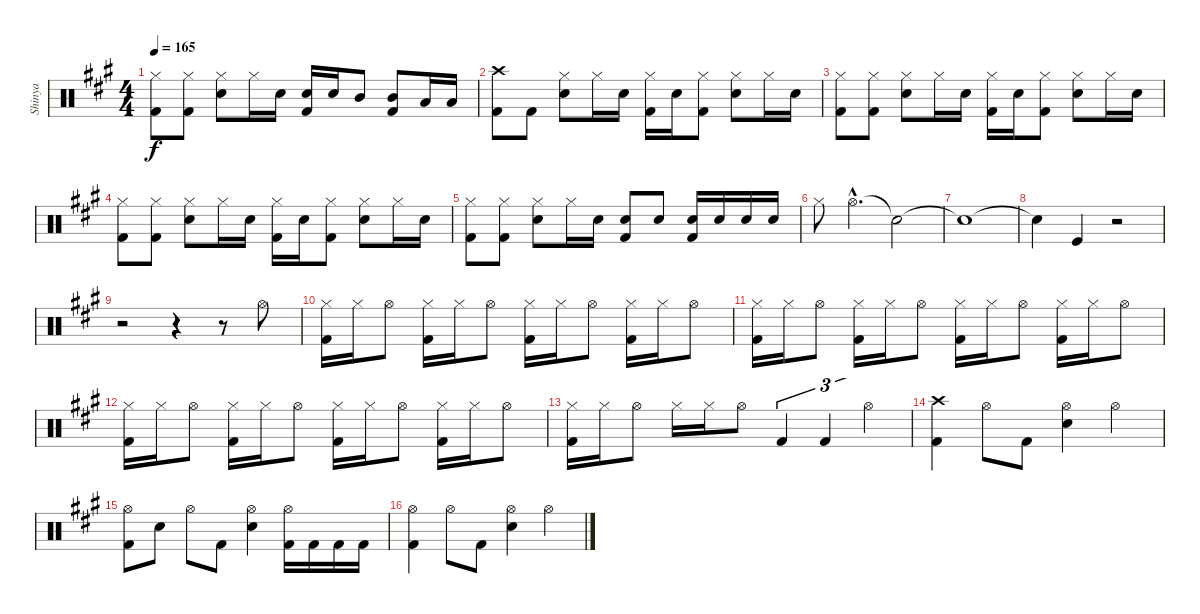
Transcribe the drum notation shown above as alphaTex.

\track ("Shinya" "Shinya") {instrument percussion}
\staff {score}
\articulation defaults
\ts (4 4)
\tempo 165
\clef neutral
\ks a
("Hi-Hat (closed)" "Kick (hit) 2").8{dy f} ("Hi-Hat (closed)" "Kick (hit) 2").8 ("Hi-Hat (closed)" "Snare (hit) 2").8 "Hi-Hat (closed)".16 "Snare (hit) 2".16 ("Snare (hit) 2" "Kick (hit) 2").16 "Snare (hit) 2".16 "Mid Tom (hit)".8 ("Mid Tom (hit)" "Kick (hit) 2").8 "Low Tom (hit)".16 "Low Tom (hit)".16 |
("Crash high (hit)" "Kick (hit) 2").8 "Kick (hit) 2".8 ("Hi-Hat (closed)" "Snare (hit) 2").8 "Hi-Hat (closed)".16 "Snare (hit) 2".16 ("Hi-Hat (closed)" "Kick (hit) 2").16 "Snare (hit) 2".16 ("Hi-Hat (closed)" "Kick (hit) 2").8 ("Hi-Hat (closed)" "Snare (hit) 2").8 "Hi-Hat (closed)".16 "Snare (hit) 2".16 |
("Hi-Hat (closed)" "Kick (hit) 2").8 ("Hi-Hat (closed)" "Kick (hit) 2").8 ("Hi-Hat (closed)" "Snare (hit) 2").8 "Hi-Hat (closed)".16 "Snare (hit) 2".16 ("Hi-Hat (closed)" "Kick (hit) 2").16 "Snare (hit) 2".16 ("Hi-Hat (closed)" "Kick (hit) 2").8 ("Hi-Hat (closed)" "Snare (hit) 2").8 "Hi-Hat (closed)".16 "Snare (hit) 2".16 |
("Hi-Hat (closed)" "Kick (hit) 2").8 ("Hi-Hat (closed)" "Kick (hit) 2").8 ("Hi-Hat (closed)" "Snare (hit) 2").8 "Hi-Hat (closed)".16 "Snare (hit) 2".16 ("Hi-Hat (closed)" "Kick (hit) 2").16 "Snare (hit) 2".16 ("Hi-Hat (closed)" "Kick (hit) 2").8 ("Hi-Hat (closed)" "Snare (hit) 2").8 "Hi-Hat (closed)".16 "Snare (hit) 2".16 |
("Hi-Hat (closed)" "Kick (hit) 2").8 ("Hi-Hat (closed)" "Kick (hit) 2").8 ("Hi-Hat (closed)" "Snare (hit) 2").8 "Hi-Hat (closed)".16 "Snare (hit) 2".16 ("Snare (hit) 2" "Kick (hit) 2").8 "Snare (hit) 2".8 ("Snare (hit) 2" "Kick (hit) 2").16 "Snare (hit) 2".16 "Snare (hit) 2".16 "Snare (hit) 2".16 |
"Hi-Hat (closed)".8 "Hi-Hat (open)"{hac}.4{d} "Snare (hit)"{t}.2 |
"Snare (hit)"{t}.1 |
"Snare (hit)"{t}.4 "Kick (hit)".4 r.2 |
r.2 r.4 r.8 "Hi-Hat (open)".8 |
("Hi-Hat (closed)" "Kick (hit) 2").16 "Hi-Hat (closed)".16 "Hi-Hat (open)".8 ("Hi-Hat (closed)" "Kick (hit) 2").16 "Hi-Hat (closed)".16 "Hi-Hat (open)".8 ("Hi-Hat (closed)" "Kick (hit) 2").16 "Hi-Hat (closed)".16 "Hi-Hat (open)".8 ("Hi-Hat (closed)" "Kick (hit) 2").16 "Hi-Hat (closed)".16 "Hi-Hat (open)".8 |
("Hi-Hat (closed)" "Kick (hit) 2").16 "Hi-Hat (closed)".16 "Hi-Hat (open)".8 ("Hi-Hat (closed)" "Kick (hit) 2").16 "Hi-Hat (closed)".16 "Hi-Hat (open)".8 ("Hi-Hat (closed)" "Kick (hit) 2").16 "Hi-Hat (closed)".16 "Hi-Hat (open)".8 ("Hi-Hat (closed)" "Kick (hit) 2").16 "Hi-Hat (closed)".16 "Hi-Hat (open)".8 |
("Hi-Hat (closed)" "Kick (hit) 2").16 "Hi-Hat (closed)".16 "Hi-Hat (open)".8 ("Hi-Hat (closed)" "Kick (hit) 2").16 "Hi-Hat (closed)".16 "Hi-Hat (open)".8 ("Hi-Hat (closed)" "Kick (hit) 2").16 "Hi-Hat (closed)".16 "Hi-Hat (open)".8 ("Hi-Hat (closed)" "Kick (hit) 2").16 "Hi-Hat (closed)".16 "Hi-Hat (open)".8 |
("Hi-Hat (closed)" "Kick (hit) 2").16 "Hi-Hat (closed)".16 "Hi-Hat (open)".8 "Hi-Hat (closed)".16 "Hi-Hat (closed)".16 "Hi-Hat (open)".8 "Kick (hit) 2".4{tu (3 2)} "Kick (hit) 2".4{tu (3 2)} "Hi-Hat (open)".4{tu (3 2)} |
("Crash high (hit)" "Kick (hit) 2").4 "Hi-Hat (open)".8 "Kick (hit) 2".8 ("Hi-Hat (open)" "Snare (hit) 2").4 "Hi-Hat (open)".4 |
("Hi-Hat (open)" "Kick (hit) 2").8 "Snare (hit) 2".8 "Hi-Hat (open)".8 "Kick (hit) 2".8 ("Hi-Hat (open)" "Snare (hit) 2").4 ("Hi-Hat (open)" "Kick (hit) 2").16 "Kick (hit) 2".16 "Kick (hit) 2".16 "Kick (hit) 2".16 |
("Hi-Hat (open)" "Kick (hit) 2").4 "Hi-Hat (open)".8 "Kick (hit) 2".8 ("Hi-Hat (open)" "Snare (hit) 2").4 "Hi-Hat (open)".4
